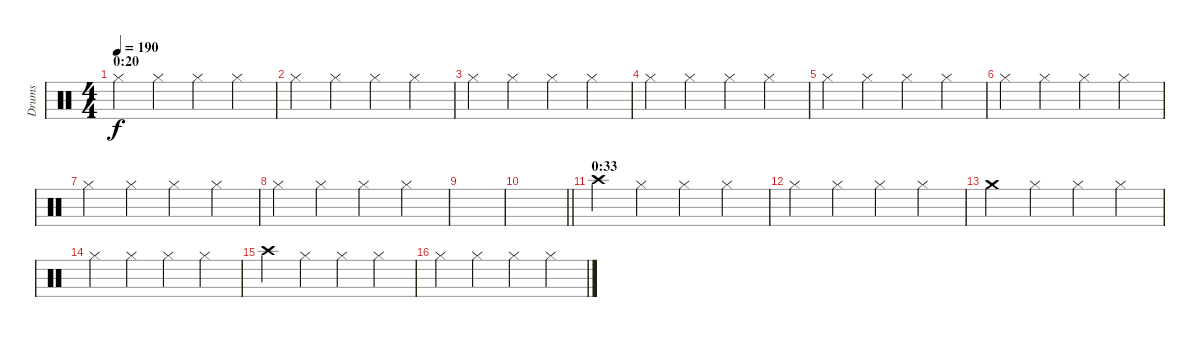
\track ("Drums" "Drums") {instrument percussion}
\staff {score}
\articulation defaults
\ts (4 4)
\section ("" "0:20")
\tempo 190
\clef neutral
\ks c "Hi-Hat (closed)".4{dy f} "Hi-Hat (closed)".4 "Hi-Hat (closed)".4 "Hi-Hat (closed)".4
|
"Hi-Hat (closed)".4 "Hi-Hat (closed)".4 "Hi-Hat (closed)".4 "Hi-Hat (closed)".4 |
"Hi-Hat (closed)".4 "Hi-Hat (closed)".4 "Hi-Hat (closed)".4 "Hi-Hat (closed)".4 |
"Hi-Hat (closed)".4 "Hi-Hat (closed)".4 "Hi-Hat (closed)".4 "Hi-Hat (closed)".4 |
"Hi-Hat (closed)".4 "Hi-Hat (closed)".4 "Hi-Hat (closed)".4 "Hi-Hat (closed)".4 |
"Hi-Hat (closed)".4 "Hi-Hat (closed)".4 "Hi-Hat (closed)".4 "Hi-Hat (closed)".4 |
"Hi-Hat (closed)".4 "Hi-Hat (closed)".4 "Hi-Hat (closed)".4 "Hi-Hat (closed)".4 |
"Hi-Hat (closed)".4 "Hi-Hat (closed)".4 "Hi-Hat (closed)".4 "Hi-Hat (closed)".4 |
|
\barLineRight lightlight
|
\section ("" "0:33")
"Crash high (hit)".4 "Hi-Hat (closed)".4 "Hi-Hat (closed)".4 "Hi-Hat (closed)".4 |
"Hi-Hat (closed)".4 "Hi-Hat (closed)".4 "Hi-Hat (closed)".4 "Hi-Hat (closed)".4 |
"Crash medium (hit)".4 "Hi-Hat (closed)".4 "Hi-Hat (closed)".4 "Hi-Hat (closed)".4 |
"Hi-Hat (closed)".4 "Hi-Hat (closed)".4 "Hi-Hat (closed)".4 "Hi-Hat (closed)".4 |
"Crash high (hit)".4 "Hi-Hat (closed)".4 "Hi-Hat (closed)".4 "Hi-Hat (closed)".4 |
"Hi-Hat (closed)".4 "Hi-Hat (closed)".4 "Hi-Hat (closed)".4 "Hi-Hat (closed)".4
